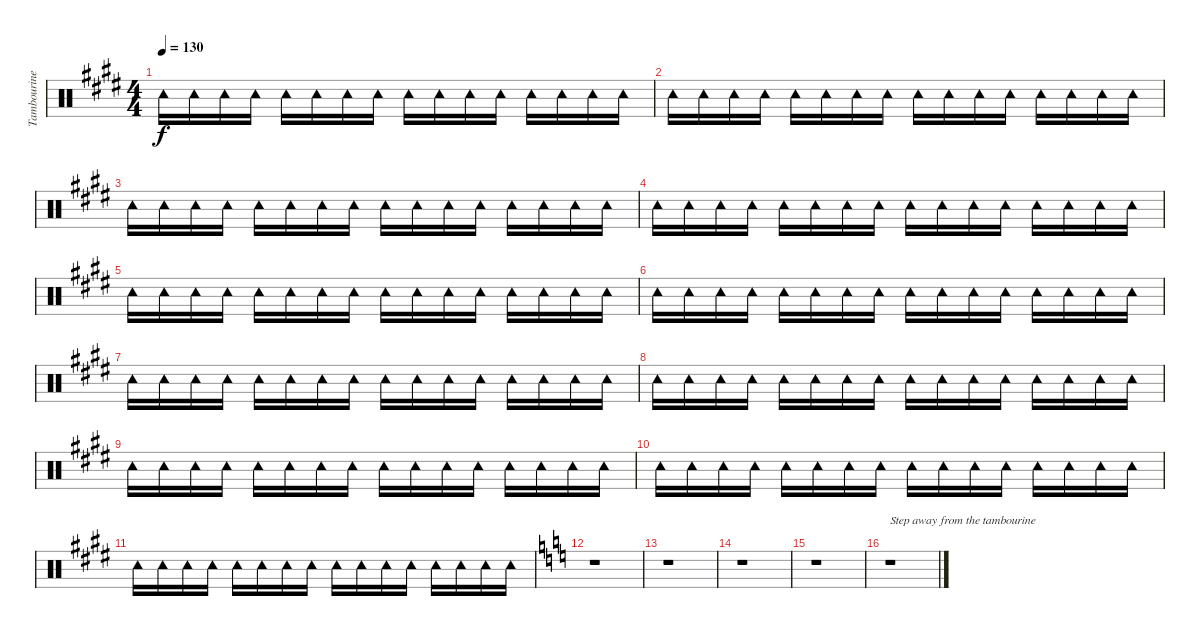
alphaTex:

\track ("Tambourine" "Tambourine") {instrument percussion}
\staff {score}
\articulation defaults
\ts (4 4)
\tempo 130
\clef neutral
\ks e "Tambourine (hit)".16{dy f} "Tambourine (hit)".16 "Tambourine (hit)".16 "Tambourine (hit)".16 "Tambourine (hit)".16 "Tambourine (hit)".16 "Tambourine (hit)".16 "Tambourine (hit)".16 "Tambourine (hit)".16 "Tambourine (hit)".16 "Tambourine (hit)".16 "Tambourine (hit)".16 "Tambourine (hit)".16 "Tambourine (hit)".16 "Tambourine (hit)".16 "Tambourine (hit)".16
|
\ks c#minor "Tambourine (hit)".16 "Tambourine (hit)".16 "Tambourine (hit)".16 "Tambourine (hit)".16 "Tambourine (hit)".16 "Tambourine (hit)".16 "Tambourine (hit)".16 "Tambourine (hit)".16 "Tambourine (hit)".16 "Tambourine (hit)".16 "Tambourine (hit)".16 "Tambourine (hit)".16 "Tambourine (hit)".16 "Tambourine (hit)".16 "Tambourine (hit)".16 "Tambourine (hit)".16
|
"Tambourine (hit)".16 "Tambourine (hit)".16 "Tambourine (hit)".16 "Tambourine (hit)".16 "Tambourine (hit)".16 "Tambourine (hit)".16 "Tambourine (hit)".16 "Tambourine (hit)".16 "Tambourine (hit)".16 "Tambourine (hit)".16 "Tambourine (hit)".16 "Tambourine (hit)".16 "Tambourine (hit)".16 "Tambourine (hit)".16 "Tambourine (hit)".16 "Tambourine (hit)".16 |
"Tambourine (hit)".16 "Tambourine (hit)".16 "Tambourine (hit)".16 "Tambourine (hit)".16 "Tambourine (hit)".16 "Tambourine (hit)".16 "Tambourine (hit)".16 "Tambourine (hit)".16 "Tambourine (hit)".16 "Tambourine (hit)".16 "Tambourine (hit)".16 "Tambourine (hit)".16 "Tambourine (hit)".16 "Tambourine (hit)".16 "Tambourine (hit)".16 "Tambourine (hit)".16 |
\ks e "Tambourine (hit)".16 "Tambourine (hit)".16 "Tambourine (hit)".16 "Tambourine (hit)".16 "Tambourine (hit)".16 "Tambourine (hit)".16 "Tambourine (hit)".16 "Tambourine (hit)".16 "Tambourine (hit)".16 "Tambourine (hit)".16 "Tambourine (hit)".16 "Tambourine (hit)".16 "Tambourine (hit)".16 "Tambourine (hit)".16 "Tambourine (hit)".16 "Tambourine (hit)".16
|
\ks c#minor "Tambourine (hit)".16 "Tambourine (hit)".16 "Tambourine (hit)".16 "Tambourine (hit)".16 "Tambourine (hit)".16 "Tambourine (hit)".16 "Tambourine (hit)".16 "Tambourine (hit)".16 "Tambourine (hit)".16 "Tambourine (hit)".16 "Tambourine (hit)".16 "Tambourine (hit)".16 "Tambourine (hit)".16 "Tambourine (hit)".16 "Tambourine (hit)".16 "Tambourine (hit)".16
|
"Tambourine (hit)".16 "Tambourine (hit)".16 "Tambourine (hit)".16 "Tambourine (hit)".16 "Tambourine (hit)".16 "Tambourine (hit)".16 "Tambourine (hit)".16 "Tambourine (hit)".16 "Tambourine (hit)".16 "Tambourine (hit)".16 "Tambourine (hit)".16 "Tambourine (hit)".16 "Tambourine (hit)".16 "Tambourine (hit)".16 "Tambourine (hit)".16 "Tambourine (hit)".16 |
"Tambourine (hit)".16 "Tambourine (hit)".16 "Tambourine (hit)".16 "Tambourine (hit)".16 "Tambourine (hit)".16 "Tambourine (hit)".16 "Tambourine (hit)".16 "Tambourine (hit)".16 "Tambourine (hit)".16 "Tambourine (hit)".16 "Tambourine (hit)".16 "Tambourine (hit)".16 "Tambourine (hit)".16 "Tambourine (hit)".16 "Tambourine (hit)".16 "Tambourine (hit)".16 |
\ks e "Tambourine (hit)".16 "Tambourine (hit)".16 "Tambourine (hit)".16 "Tambourine (hit)".16 "Tambourine (hit)".16 "Tambourine (hit)".16 "Tambourine (hit)".16 "Tambourine (hit)".16 "Tambourine (hit)".16 "Tambourine (hit)".16 "Tambourine (hit)".16 "Tambourine (hit)".16 "Tambourine (hit)".16 "Tambourine (hit)".16 "Tambourine (hit)".16 "Tambourine (hit)".16
|
\ks c#minor "Tambourine (hit)".16 "Tambourine (hit)".16 "Tambourine (hit)".16 "Tambourine (hit)".16 "Tambourine (hit)".16 "Tambourine (hit)".16 "Tambourine (hit)".16 "Tambourine (hit)".16 "Tambourine (hit)".16 "Tambourine (hit)".16 "Tambourine (hit)".16 "Tambourine (hit)".16 "Tambourine (hit)".16 "Tambourine (hit)".16 "Tambourine (hit)".16 "Tambourine (hit)".16
|
"Tambourine (hit)".16 "Tambourine (hit)".16 "Tambourine (hit)".16 "Tambourine (hit)".16 "Tambourine (hit)".16 "Tambourine (hit)".16 "Tambourine (hit)".16 "Tambourine (hit)".16 "Tambourine (hit)".16 "Tambourine (hit)".16 "Tambourine (hit)".16 "Tambourine (hit)".16 "Tambourine (hit)".16 "Tambourine (hit)".16 "Tambourine (hit)".16 "Tambourine (hit)".16 |
\ks c
r.1 |
r.1 |
r.1 |
r.1 |
r.1{txt "Step away from the tambourine"}
